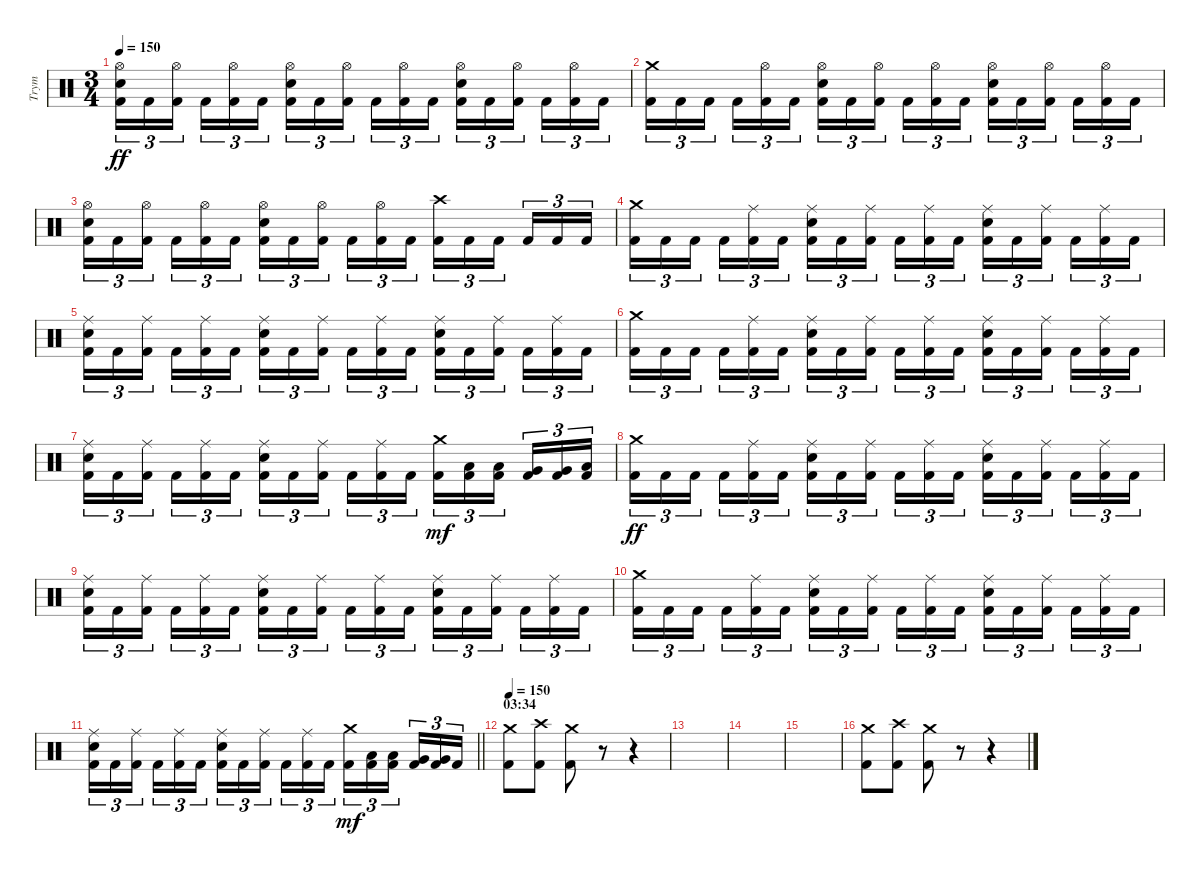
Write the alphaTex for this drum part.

\track ("Trym" "Trym") {instrument percussion}
\staff {score}
\articulation defaults
\ts (3 4)
\tempo 150
\clef neutral
\ks c
("Snare (hit) 2" "Hi-Hat (open)" "Kick (hit) 2").16{tu (3 2) dy ff} "Kick (hit) 2".16{tu (3 2)} ("Hi-Hat (open)" "Kick (hit) 2").16{tu (3 2) beam splitsecondary} "Kick (hit) 2".16{tu (3 2)} ("Hi-Hat (open)" "Kick (hit) 2").16{tu (3 2)} "Kick (hit) 2".16{tu (3 2)} ("Snare (hit) 2" "Hi-Hat (open)" "Kick (hit) 2").16{tu (3 2)} "Kick (hit) 2".16{tu (3 2)} ("Hi-Hat (open)" "Kick (hit) 2").16{tu (3 2) beam splitsecondary} "Kick (hit) 2".16{tu (3 2)} ("Hi-Hat (open)" "Kick (hit) 2").16{tu (3 2)} "Kick (hit) 2".16{tu (3 2)} ("Snare (hit) 2" "Hi-Hat (open)" "Kick (hit) 2").16{tu (3 2)} "Kick (hit) 2".16{tu (3 2)} ("Hi-Hat (open)" "Kick (hit) 2").16{tu (3 2) beam splitsecondary} "Kick (hit) 2".16{tu (3 2)} ("Hi-Hat (open)" "Kick (hit) 2").16{tu (3 2)} "Kick (hit) 2".16{tu (3 2)} |
("Crash medium (hit)" "Kick (hit) 2").16{tu (3 2)} "Kick (hit) 2".16{tu (3 2)} "Kick (hit) 2".16{tu (3 2) beam splitsecondary} "Kick (hit) 2".16{tu (3 2)} ("Hi-Hat (open)" "Kick (hit) 2").16{tu (3 2)} "Kick (hit) 2".16{tu (3 2)} ("Snare (hit) 2" "Hi-Hat (open)" "Kick (hit) 2").16{tu (3 2)} "Kick (hit) 2".16{tu (3 2)} ("Hi-Hat (open)" "Kick (hit) 2").16{tu (3 2) beam splitsecondary} "Kick (hit) 2".16{tu (3 2)} ("Hi-Hat (open)" "Kick (hit) 2").16{tu (3 2)} "Kick (hit) 2".16{tu (3 2)} ("Snare (hit) 2" "Hi-Hat (open)" "Kick (hit) 2").16{tu (3 2)} "Kick (hit) 2".16{tu (3 2)} ("Hi-Hat (open)" "Kick (hit) 2").16{tu (3 2) beam splitsecondary} "Kick (hit) 2".16{tu (3 2)} ("Hi-Hat (open)" "Kick (hit) 2").16{tu (3 2)} "Kick (hit) 2".16{tu (3 2)} |
("Snare (hit) 2" "Hi-Hat (open)" "Kick (hit) 2").16{tu (3 2)} "Kick (hit) 2".16{tu (3 2)} ("Hi-Hat (open)" "Kick (hit) 2").16{tu (3 2) beam splitsecondary} "Kick (hit) 2".16{tu (3 2)} ("Hi-Hat (open)" "Kick (hit) 2").16{tu (3 2)} "Kick (hit) 2".16{tu (3 2)} ("Snare (hit) 2" "Hi-Hat (open)" "Kick (hit) 2").16{tu (3 2)} "Kick (hit) 2".16{tu (3 2)} ("Hi-Hat (open)" "Kick (hit) 2").16{tu (3 2) beam splitsecondary} "Kick (hit) 2".16{tu (3 2)} ("Hi-Hat (open)" "Kick (hit) 2").16{tu (3 2)} "Kick (hit) 2".16{tu (3 2)} ("Crash high (hit)" "Kick (hit) 2").16{tu (3 2)} "Kick (hit) 2".16{tu (3 2)} "Kick (hit) 2".16{tu (3 2) beam splitsecondary} "Kick (hit) 2".16{tu (3 2)} "Kick (hit) 2".16{tu (3 2)} "Kick (hit) 2".16{tu (3 2)} |
("Crash medium (hit)" "Kick (hit) 2").16{tu (3 2)} "Kick (hit) 2".16{tu (3 2)} "Kick (hit) 2".16{tu (3 2) beam splitsecondary} "Kick (hit) 2".16{tu (3 2)} ("Ride (middle)" "Kick (hit) 2").16{tu (3 2)} "Kick (hit) 2".16{tu (3 2)} ("Snare (hit) 2" "Ride (middle)" "Kick (hit) 2").16{tu (3 2)} "Kick (hit) 2".16{tu (3 2)} ("Ride (middle)" "Kick (hit) 2").16{tu (3 2) beam splitsecondary} "Kick (hit) 2".16{tu (3 2)} ("Ride (middle)" "Kick (hit) 2").16{tu (3 2)} "Kick (hit) 2".16{tu (3 2)} ("Snare (hit) 2" "Ride (middle)" "Kick (hit) 2").16{tu (3 2)} "Kick (hit) 2".16{tu (3 2)} ("Ride (middle)" "Kick (hit) 2").16{tu (3 2) beam splitsecondary} "Kick (hit) 2".16{tu (3 2)} ("Ride (middle)" "Kick (hit) 2").16{tu (3 2)} "Kick (hit) 2".16{tu (3 2)} |
("Snare (hit) 2" "Ride (middle)" "Kick (hit) 2").16{tu (3 2)} "Kick (hit) 2".16{tu (3 2)} ("Ride (middle)" "Kick (hit) 2").16{tu (3 2) beam splitsecondary} "Kick (hit) 2".16{tu (3 2)} ("Ride (middle)" "Kick (hit) 2").16{tu (3 2)} "Kick (hit) 2".16{tu (3 2)} ("Snare (hit) 2" "Ride (middle)" "Kick (hit) 2").16{tu (3 2)} "Kick (hit) 2".16{tu (3 2)} ("Ride (middle)" "Kick (hit) 2").16{tu (3 2) beam splitsecondary} "Kick (hit) 2".16{tu (3 2)} ("Ride (middle)" "Kick (hit) 2").16{tu (3 2)} "Kick (hit) 2".16{tu (3 2)} ("Snare (hit) 2" "Ride (middle)" "Kick (hit) 2").16{tu (3 2)} "Kick (hit) 2".16{tu (3 2)} ("Ride (middle)" "Kick (hit) 2").16{tu (3 2) beam splitsecondary} "Kick (hit) 2".16{tu (3 2)} ("Ride (middle)" "Kick (hit) 2").16{tu (3 2)} "Kick (hit) 2".16{tu (3 2)} |
("Crash medium (hit)" "Kick (hit) 2").16{tu (3 2)} "Kick (hit) 2".16{tu (3 2)} "Kick (hit) 2".16{tu (3 2) beam splitsecondary} "Kick (hit) 2".16{tu (3 2)} ("Ride (middle)" "Kick (hit) 2").16{tu (3 2)} "Kick (hit) 2".16{tu (3 2)} ("Snare (hit) 2" "Ride (middle)" "Kick (hit) 2").16{tu (3 2)} "Kick (hit) 2".16{tu (3 2)} ("Ride (middle)" "Kick (hit) 2").16{tu (3 2) beam splitsecondary} "Kick (hit) 2".16{tu (3 2)} ("Ride (middle)" "Kick (hit) 2").16{tu (3 2)} "Kick (hit) 2".16{tu (3 2)} ("Snare (hit) 2" "Ride (middle)" "Kick (hit) 2").16{tu (3 2)} "Kick (hit) 2".16{tu (3 2)} ("Ride (middle)" "Kick (hit) 2").16{tu (3 2) beam splitsecondary} "Kick (hit) 2".16{tu (3 2)} ("Ride (middle)" "Kick (hit) 2").16{tu (3 2)} "Kick (hit) 2".16{tu (3 2)} |
("Snare (hit) 2" "Ride (middle)" "Kick (hit) 2").16{tu (3 2)} "Kick (hit) 2".16{tu (3 2)} ("Ride (middle)" "Kick (hit) 2").16{tu (3 2) beam splitsecondary} "Kick (hit) 2".16{tu (3 2)} ("Ride (middle)" "Kick (hit) 2").16{tu (3 2)} "Kick (hit) 2".16{tu (3 2)} ("Snare (hit) 2" "Ride (middle)" "Kick (hit) 2").16{tu (3 2)} "Kick (hit) 2".16{tu (3 2)} ("Ride (middle)" "Kick (hit) 2").16{tu (3 2) beam splitsecondary} "Kick (hit) 2".16{tu (3 2)} ("Ride (middle)" "Kick (hit) 2").16{tu (3 2)} "Kick (hit) 2".16{tu (3 2)} ("Crash medium (hit)" "Kick (hit) 2").16{tu (3 2) dy mf} ("Low Tom (hit)" "Kick (hit) 2").16{tu (3 2)} ("Low Tom (hit)" "Kick (hit) 2").16{tu (3 2) beam splitsecondary} ("Very Low Tom (hit)" "Kick (hit) 2").16{tu (3 2)} ("Very Low Tom (hit)" "Kick (hit) 2").16{tu (3 2)} ("Low Floor Tom (hit)" "Kick (hit) 2").16{tu (3 2)} |
("Crash medium (hit)" "Kick (hit) 2").16{tu (3 2) dy ff} "Kick (hit) 2".16{tu (3 2)} "Kick (hit) 2".16{tu (3 2) beam splitsecondary} "Kick (hit) 2".16{tu (3 2)} ("Ride (middle)" "Kick (hit) 2").16{tu (3 2)} "Kick (hit) 2".16{tu (3 2)} ("Snare (hit) 2" "Ride (middle)" "Kick (hit) 2").16{tu (3 2)} "Kick (hit) 2".16{tu (3 2)} ("Ride (middle)" "Kick (hit) 2").16{tu (3 2) beam splitsecondary} "Kick (hit) 2".16{tu (3 2)} ("Ride (middle)" "Kick (hit) 2").16{tu (3 2)} "Kick (hit) 2".16{tu (3 2)} ("Snare (hit) 2" "Ride (middle)" "Kick (hit) 2").16{tu (3 2)} "Kick (hit) 2".16{tu (3 2)} ("Ride (middle)" "Kick (hit) 2").16{tu (3 2) beam splitsecondary} "Kick (hit) 2".16{tu (3 2)} ("Ride (middle)" "Kick (hit) 2").16{tu (3 2)} "Kick (hit) 2".16{tu (3 2)} |
("Snare (hit) 2" "Ride (middle)" "Kick (hit) 2").16{tu (3 2)} "Kick (hit) 2".16{tu (3 2)} ("Ride (middle)" "Kick (hit) 2").16{tu (3 2) beam splitsecondary} "Kick (hit) 2".16{tu (3 2)} ("Ride (middle)" "Kick (hit) 2").16{tu (3 2)} "Kick (hit) 2".16{tu (3 2)} ("Snare (hit) 2" "Ride (middle)" "Kick (hit) 2").16{tu (3 2)} "Kick (hit) 2".16{tu (3 2)} ("Ride (middle)" "Kick (hit) 2").16{tu (3 2) beam splitsecondary} "Kick (hit) 2".16{tu (3 2)} ("Ride (middle)" "Kick (hit) 2").16{tu (3 2)} "Kick (hit) 2".16{tu (3 2)} ("Snare (hit) 2" "Ride (middle)" "Kick (hit) 2").16{tu (3 2)} "Kick (hit) 2".16{tu (3 2)} ("Ride (middle)" "Kick (hit) 2").16{tu (3 2) beam splitsecondary} "Kick (hit) 2".16{tu (3 2)} ("Ride (middle)" "Kick (hit) 2").16{tu (3 2)} "Kick (hit) 2".16{tu (3 2)} |
("Crash medium (hit)" "Kick (hit) 2").16{tu (3 2)} "Kick (hit) 2".16{tu (3 2)} "Kick (hit) 2".16{tu (3 2) beam splitsecondary} "Kick (hit) 2".16{tu (3 2)} ("Ride (middle)" "Kick (hit) 2").16{tu (3 2)} "Kick (hit) 2".16{tu (3 2)} ("Snare (hit) 2" "Ride (middle)" "Kick (hit) 2").16{tu (3 2)} "Kick (hit) 2".16{tu (3 2)} ("Ride (middle)" "Kick (hit) 2").16{tu (3 2) beam splitsecondary} "Kick (hit) 2".16{tu (3 2)} ("Ride (middle)" "Kick (hit) 2").16{tu (3 2)} "Kick (hit) 2".16{tu (3 2)} ("Snare (hit) 2" "Ride (middle)" "Kick (hit) 2").16{tu (3 2)} "Kick (hit) 2".16{tu (3 2)} ("Ride (middle)" "Kick (hit) 2").16{tu (3 2) beam splitsecondary} "Kick (hit) 2".16{tu (3 2)} ("Ride (middle)" "Kick (hit) 2").16{tu (3 2)} "Kick (hit) 2".16{tu (3 2)} |
\barLineRight lightlight
("Snare (hit) 2" "Ride (middle)" "Kick (hit) 2").16{tu (3 2)} "Kick (hit) 2".16{tu (3 2)} ("Ride (middle)" "Kick (hit) 2").16{tu (3 2) beam splitsecondary} "Kick (hit) 2".16{tu (3 2)} ("Ride (middle)" "Kick (hit) 2").16{tu (3 2)} "Kick (hit) 2".16{tu (3 2)} ("Snare (hit) 2" "Ride (middle)" "Kick (hit) 2").16{tu (3 2)} "Kick (hit) 2".16{tu (3 2)} ("Ride (middle)" "Kick (hit) 2").16{tu (3 2) beam splitsecondary} "Kick (hit) 2".16{tu (3 2)} ("Ride (middle)" "Kick (hit) 2").16{tu (3 2)} "Kick (hit) 2".16{tu (3 2)} ("Crash medium (hit)" "Kick (hit) 2").16{tu (3 2) dy mf} ("Low Tom (hit)" "Kick (hit) 2").16{tu (3 2)} ("Low Tom (hit)" "Kick (hit) 2").16{tu (3 2) beam splitsecondary} ("Very Low Tom (hit)" "Kick (hit) 2").16{tu (3 2)} ("Very Low Tom (hit)" "Kick (hit) 2").16{tu (3 2)} "Kick (hit) 2".16{tu (3 2)} |
\section ("" "03:34")
\tempo 150
("Crash medium (hit)" "Kick (hit) 2").8 ("Crash high (hit)" "Kick (hit) 2").8 ("Crash medium (hit)" "Kick (hit) 2").8 r.8 r.4 |
|
|
|
("Crash medium (hit)" "Kick (hit) 2").8 ("Crash high (hit)" "Kick (hit) 2").8 ("Crash medium (hit)" "Kick (hit) 2").8 r.8 r.4
